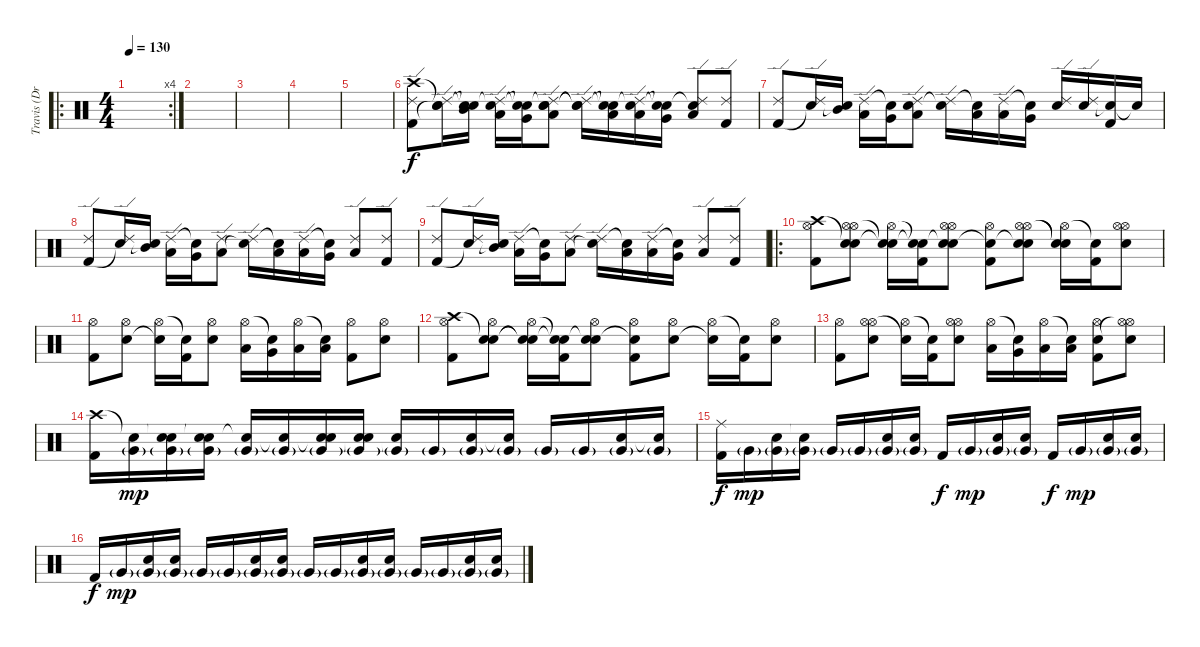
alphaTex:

\track ("Travis (Drums)" "Travis (Dr") {instrument percussion}
\staff {score}
\articulation defaults
\ro
\rc 4
\ts (4 4)
\tempo 130
\clef neutral
\ks c
|
|
|
|
|
("Crash high (hit)" "Ride (edge) 2" "Kick (hit) 2").8 ("Snare (hit)"{t} "Ride (edge) 2" "Snare (hit)"{t}).16 ("Snare (hit)"{t} "Snare (hit)"{t} "Mid Tom (hit)").16 ("Snare (hit)"{t} "Ride (edge) 2" "Low Tom (hit)").16 ("Snare (hit)"{t} "Snare (hit)"{t} "Very Low Tom (hit)").16 ("Snare (hit)"{t} "Ride (edge) 2" "Electric Snare (hit)" "Low Floor Tom (hit)").8 ("Snare (hit)"{t} "Ride (edge) 2" "Snare (hit)"{t}).16 ("Snare (hit)"{t} "Snare (hit)"{t} "Low Tom (hit)").16 ("Snare (hit)"{t} "Ride (edge) 2" "Low Tom (hit)").16 ("Snare (hit)"{t} "Snare (hit)"{t} "Very Low Tom (hit)").16 ("Snare (hit)"{t} "Ride (edge) 2" "Low Floor Tom (hit)").8 ("Ride (edge) 2" "Kick (hit) 2").8 |
("Ride (edge) 2" "Kick (hit) 2").8 ("Ride (edge) 2" "Snare (hit)"{t}).16 ("Snare (hit)"{t} "Mid Tom (hit)").16 ("Ride (edge) 2" "Low Tom (hit)").16 ("Snare (hit)"{t} "Very Low Tom (hit)").16 ("Ride (edge) 2" "Electric Snare (hit)" "Low Floor Tom (hit)").8 ("Ride (edge) 2" "Snare (hit)"{t}).16 ("Snare (hit)"{t} "Low Tom (hit)").16 ("Ride (edge) 2" "Low Tom (hit)").16 ("Snare (hit)"{t} "Very Low Tom (hit)").16 ("Ride (edge) 2" "Electric Snare (hit)").16 ("Ride (edge) 2" "Electric Snare (hit)").16 ("Electric Snare (hit)"{t} "Kick (hit) 2").16 "Snare (hit)"{t}.16 |
("Ride (edge) 2" "Kick (hit) 2").8 ("Ride (edge) 2" "Snare (hit)"{t}).16 ("Snare (hit)"{t} "Mid Tom (hit)").16 ("Ride (edge) 2" "Low Tom (hit)").16 ("Snare (hit)"{t} "Very Low Tom (hit)").16 ("Ride (edge) 2" "Low Floor Tom (hit)").8 ("Ride (edge) 2" "Snare (hit)"{t}).16 ("Snare (hit)"{t} "Low Tom (hit)").16 ("Ride (edge) 2" "Low Tom (hit)").16 ("Snare (hit)"{t} "Very Low Tom (hit)").16 ("Ride (edge) 2" "Low Floor Tom (hit)").8 ("Ride (edge) 2" "Kick (hit) 2").8 |
("Ride (edge) 2" "Kick (hit) 2").8 ("Ride (edge) 2" "Snare (hit)"{t}).16 ("Snare (hit)"{t} "Mid Tom (hit)").16 ("Ride (edge) 2" "Low Tom (hit)").16 ("Snare (hit)"{t} "Very Low Tom (hit)").16 ("Ride (edge) 2" "Low Floor Tom (hit)").8 ("Ride (edge) 2" "Snare (hit)"{t}).16 ("Snare (hit)"{t} "Low Tom (hit)").16 ("Ride (edge) 2" "Low Tom (hit)").16 ("Snare (hit)"{t} "Very Low Tom (hit)").16 ("Ride (edge) 2" "Low Floor Tom (hit)").8 ("Ride (edge) 2" "Kick (hit) 2").8 |
\ro
("Crash high (hit)" "Hi-Hat (open)" "Kick (hit) 2").8 ("Snare (hit)"{t} "Hi-Hat (open)" "Hi-Hat (open)" "Electric Snare (hit)").8 ("Snare (hit)"{t} "Hi-Hat (open)" "Snare (hit)"{t}).16 ("Snare (hit)"{t} "Snare (hit)"{t} "Kick (hit) 2").16 ("Snare (hit)"{t} "Hi-Hat (open)" "Hi-Hat (open)" "Electric Snare (hit)").8 ("Snare (hit)"{t} "Hi-Hat (open)" "Kick (hit) 2").8 ("Snare (hit)"{t} "Hi-Hat (open)" "Hi-Hat (open)" "Electric Snare (hit)").8 ("Hi-Hat (open)" "Snare (hit)"{t} "Snare (hit)"{t}).16 ("Snare (hit)"{t} "Kick (hit) 2").16 ("Hi-Hat (open)" "Hi-Hat (open)" "Electric Snare (hit)").8 |
("Hi-Hat (open)" "Kick (hit) 2").8 ("Hi-Hat (open)" "Electric Snare (hit)").8 ("Hi-Hat (open)" "Snare (hit)"{t}).16 ("Snare (hit)"{t} "Kick (hit) 2").16 ("Hi-Hat (open)" "Electric Snare (hit)").8 ("Hi-Hat (open)" "Low Tom (hit)").16 ("Snare (hit)"{t} "Very Low Tom (hit)").16 ("Hi-Hat (open)" "Low Floor Tom (hit)").16 ("Snare (hit)"{t} "Low Floor Tom (hit)").16 ("Hi-Hat (open)" "Kick (hit) 2").8 ("Hi-Hat (open)" "Electric Snare (hit)").8 |
("Crash high (hit)" "Hi-Hat (open)" "Kick (hit) 2").8 ("Snare (hit)"{t} "Hi-Hat (open)" "Electric Snare (hit)").8 ("Snare (hit)"{t} "Hi-Hat (open)" "Snare (hit)"{t}).16 ("Snare (hit)"{t} "Snare (hit)"{t} "Kick (hit) 2").16 ("Snare (hit)"{t} "Hi-Hat (open)" "Electric Snare (hit)").8 ("Snare (hit)"{t} "Hi-Hat (open)" "Kick (hit) 2").8 ("Hi-Hat (open)" "Electric Snare (hit)").8 ("Hi-Hat (open)" "Snare (hit)"{t}).16 ("Snare (hit)"{t} "Kick (hit) 2").16 ("Hi-Hat (open)" "Electric Snare (hit)").8 |
("Hi-Hat (open)" "Kick (hit) 2").8 ("Hi-Hat (open)" "Hi-Hat (open)" "Electric Snare (hit)").8 ("Hi-Hat (open)" "Snare (hit)"{t}).16 ("Snare (hit)"{t} "Kick (hit) 2").16 ("Hi-Hat (open)" "Hi-Hat (open)" "Electric Snare (hit)").8 ("Hi-Hat (open)" "Low Tom (hit)").16 ("Snare (hit)"{t} "Very Low Tom (hit)").16 ("Hi-Hat (open)" "Low Floor Tom (hit)").16 ("Snare (hit)"{t} "Low Floor Tom (hit)").16 ("Hi-Hat (open)" "Electric Snare (hit)" "Kick (hit) 2").8 ("Hi-Hat (open)" "Hi-Hat (open)"{t} "Electric Snare (hit)").8 |
("Crash high (hit)" "Kick (hit) 2").16 ("Snare (hit)"{t} "Very Low Tom (hit)"{g}).16{dy mp} ("Snare (hit)"{t} "Electric Snare (hit)" "Very Low Tom (hit)"{g}).16 ("Snare (hit)"{t} "Snare (hit)"{t} "Very Low Tom (hit)"{g}).16 ("Snare (hit)"{t} "Very Low Tom (hit)"{g}).16 ("Snare (hit)"{t} "Very Low Tom (hit)"{g}).16 ("Snare (hit)"{t} "Electric Snare (hit)" "Very Low Tom (hit)"{g}).16 ("Snare (hit)"{t} "Snare (hit)"{t} "Very Low Tom (hit)"{g}).16 ("Snare (hit)"{t} "Very Low Tom (hit)"{g}).16 "Very Low Tom (hit)"{g}.16 ("Electric Snare (hit)" "Very Low Tom (hit)"{g}).16 ("Snare (hit)"{t} "Very Low Tom (hit)"{g}).16 "Very Low Tom (hit)"{g}.16 "Very Low Tom (hit)"{g}.16 ("Electric Snare (hit)" "Very Low Tom (hit)"{g}).16 ("Snare (hit)"{t} "Very Low Tom (hit)"{g}).16 |
("Ride (middle)" "Kick (hit) 2").16{dy f} "Very Low Tom (hit)"{g}.16{dy mp} ("Electric Snare (hit)" "Very Low Tom (hit)"{g}).16 ("Snare (hit)"{t} "Very Low Tom (hit)"{g}).16 "Very Low Tom (hit)"{g}.16 "Very Low Tom (hit)"{g}.16 ("Electric Snare (hit)" "Very Low Tom (hit)"{g}).16 ("Snare (hit)"{t} "Very Low Tom (hit)"{g}).16 "Kick (hit) 2".16{dy f} "Very Low Tom (hit)"{g}.16{dy mp} ("Electric Snare (hit)" "Very Low Tom (hit)"{g}).16 ("Snare (hit)"{t} "Very Low Tom (hit)"{g}).16 "Kick (hit) 2".16{dy f} "Very Low Tom (hit)"{g}.16{dy mp} ("Electric Snare (hit)" "Very Low Tom (hit)"{g}).16 ("Snare (hit)"{t} "Very Low Tom (hit)"{g}).16 |
"Kick (hit) 2".16{dy f} "Very Low Tom (hit)"{g}.16{dy mp} ("Electric Snare (hit)" "Very Low Tom (hit)"{g}).16 ("Snare (hit)"{t} "Very Low Tom (hit)"{g}).16 "Very Low Tom (hit)"{g}.16 "Very Low Tom (hit)"{g}.16 ("Electric Snare (hit)" "Very Low Tom (hit)"{g}).16 ("Snare (hit)"{t} "Very Low Tom (hit)"{g}).16 "Very Low Tom (hit)"{g}.16 "Very Low Tom (hit)"{g}.16 ("Electric Snare (hit)" "Very Low Tom (hit)"{g}).16 ("Snare (hit)"{t} "Very Low Tom (hit)"{g}).16 "Very Low Tom (hit)"{g}.16 "Very Low Tom (hit)"{g}.16 ("Electric Snare (hit)" "Very Low Tom (hit)"{g}).16 ("Snare (hit)"{t} "Very Low Tom (hit)"{g}).16
